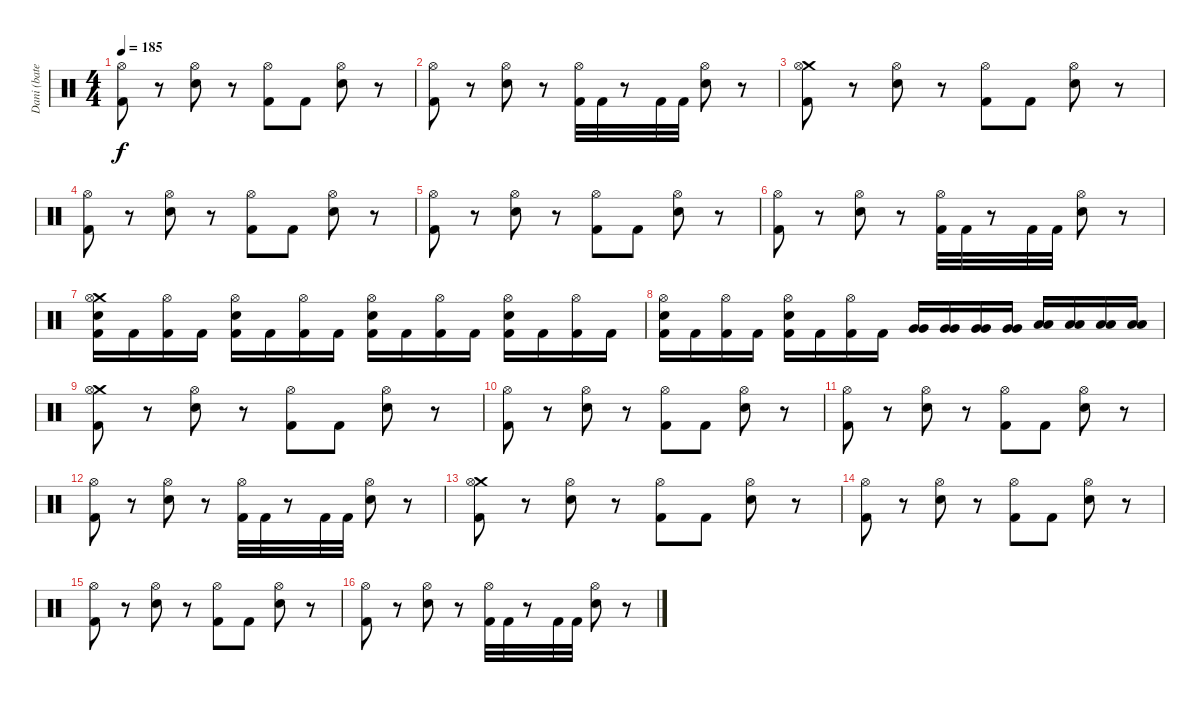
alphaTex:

\track ("Dani (batería)" "Dani (bate") {instrument percussion}
\staff {score}
\articulation defaults
\ts (4 4)
\tempo 185
\clef neutral
\ks c
("Hi-Hat (open)" "Kick (hit) 2").8{dy f} r.8 ("Hi-Hat (open)" "Snare (hit) 2").8 r.8 ("Hi-Hat (open)" "Kick (hit) 2").8 "Kick (hit) 2".8 ("Hi-Hat (open)" "Snare (hit) 2").8 r.8 |
("Hi-Hat (open)" "Kick (hit) 2").8 r.8 ("Hi-Hat (open)" "Snare (hit) 2").8 r.8 ("Hi-Hat (open)" "Kick (hit) 2").32 "Kick (hit) 2".32 r.8 "Kick (hit) 2".32 "Kick (hit) 2".32 ("Hi-Hat (open)" "Snare (hit) 2").8 r.8 |
("Crash medium (hit)" "Hi-Hat (open)" "Kick (hit) 2").8 r.8 ("Hi-Hat (open)" "Snare (hit) 2").8 r.8 ("Hi-Hat (open)" "Kick (hit) 2").8 "Kick (hit) 2".8 ("Hi-Hat (open)" "Snare (hit) 2").8 r.8 |
("Hi-Hat (open)" "Kick (hit) 2").8 r.8 ("Hi-Hat (open)" "Snare (hit) 2").8 r.8 ("Hi-Hat (open)" "Kick (hit) 2").8 "Kick (hit) 2".8 ("Hi-Hat (open)" "Snare (hit) 2").8 r.8 |
("Hi-Hat (open)" "Kick (hit) 2").8 r.8 ("Hi-Hat (open)" "Snare (hit) 2").8 r.8 ("Hi-Hat (open)" "Kick (hit) 2").8 "Kick (hit) 2".8 ("Hi-Hat (open)" "Snare (hit) 2").8 r.8 |
("Hi-Hat (open)" "Kick (hit) 2").8 r.8 ("Hi-Hat (open)" "Snare (hit) 2").8 r.8 ("Hi-Hat (open)" "Kick (hit) 2").32 "Kick (hit) 2".32 r.8 "Kick (hit) 2".32 "Kick (hit) 2".32 ("Hi-Hat (open)" "Snare (hit) 2").8 r.8 |
("Crash medium (hit)" "Hi-Hat (open)" "Snare (hit) 2" "Kick (hit) 2").16 "Kick (hit) 2".16 ("Hi-Hat (open)" "Kick (hit) 2").16 "Kick (hit) 2".16 ("Hi-Hat (open)" "Snare (hit) 2" "Kick (hit) 2").16 "Kick (hit) 2".16 ("Hi-Hat (open)" "Kick (hit) 2").16 "Kick (hit) 2".16 ("Hi-Hat (open)" "Snare (hit) 2" "Kick (hit) 2").16 "Kick (hit) 2".16 ("Hi-Hat (open)" "Kick (hit) 2").16 "Kick (hit) 2".16 ("Hi-Hat (open)" "Snare (hit) 2" "Kick (hit) 2").16 "Kick (hit) 2".16 ("Hi-Hat (open)" "Kick (hit) 2").16 "Kick (hit) 2".16 |
("Hi-Hat (open)" "Snare (hit) 2" "Kick (hit) 2").16 "Kick (hit) 2".16 ("Hi-Hat (open)" "Kick (hit) 2").16 "Kick (hit) 2".16 ("Hi-Hat (open)" "Snare (hit) 2" "Kick (hit) 2").16 "Kick (hit) 2".16 ("Hi-Hat (open)" "Kick (hit) 2").16 "Kick (hit) 2".16 ("Very Low Tom (hit)" "Very Low Tom (hit)").16 ("Very Low Tom (hit)" "Very Low Tom (hit)").16 ("Very Low Tom (hit)" "Very Low Tom (hit)").16 ("Very Low Tom (hit)" "Very Low Tom (hit)").16 ("Low Floor Tom (hit)" "Low Floor Tom (hit)").16 ("Low Floor Tom (hit)" "Low Floor Tom (hit)").16 ("Low Floor Tom (hit)" "Low Floor Tom (hit)").16 ("Low Floor Tom (hit)" "Low Floor Tom (hit)").16 |
("Crash medium (hit)" "Hi-Hat (open)" "Kick (hit) 2").8 r.8 ("Hi-Hat (open)" "Snare (hit) 2").8 r.8 ("Hi-Hat (open)" "Kick (hit) 2").8 "Kick (hit) 2".8 ("Hi-Hat (open)" "Snare (hit) 2").8 r.8 |
("Hi-Hat (open)" "Kick (hit) 2").8 r.8 ("Hi-Hat (open)" "Snare (hit) 2").8 r.8 ("Hi-Hat (open)" "Kick (hit) 2").8 "Kick (hit) 2".8 ("Hi-Hat (open)" "Snare (hit) 2").8 r.8 |
("Hi-Hat (open)" "Kick (hit) 2").8 r.8 ("Hi-Hat (open)" "Snare (hit) 2").8 r.8 ("Hi-Hat (open)" "Kick (hit) 2").8 "Kick (hit) 2".8 ("Hi-Hat (open)" "Snare (hit) 2").8 r.8 |
("Hi-Hat (open)" "Kick (hit) 2").8 r.8 ("Hi-Hat (open)" "Snare (hit) 2").8 r.8 ("Hi-Hat (open)" "Kick (hit) 2").32 "Kick (hit) 2".32 r.8 "Kick (hit) 2".32 "Kick (hit) 2".32 ("Hi-Hat (open)" "Snare (hit) 2").8 r.8 |
("Crash medium (hit)" "Hi-Hat (open)" "Kick (hit) 2").8 r.8 ("Hi-Hat (open)" "Snare (hit) 2").8 r.8 ("Hi-Hat (open)" "Kick (hit) 2").8 "Kick (hit) 2".8 ("Hi-Hat (open)" "Snare (hit) 2").8 r.8 |
("Hi-Hat (open)" "Kick (hit) 2").8 r.8 ("Hi-Hat (open)" "Snare (hit) 2").8 r.8 ("Hi-Hat (open)" "Kick (hit) 2").8 "Kick (hit) 2".8 ("Hi-Hat (open)" "Snare (hit) 2").8 r.8 |
("Hi-Hat (open)" "Kick (hit) 2").8 r.8 ("Hi-Hat (open)" "Snare (hit) 2").8 r.8 ("Hi-Hat (open)" "Kick (hit) 2").8 "Kick (hit) 2".8 ("Hi-Hat (open)" "Snare (hit) 2").8 r.8 |
("Hi-Hat (open)" "Kick (hit) 2").8 r.8 ("Hi-Hat (open)" "Snare (hit) 2").8 r.8 ("Hi-Hat (open)" "Kick (hit) 2").32 "Kick (hit) 2".32 r.8 "Kick (hit) 2".32 "Kick (hit) 2".32 ("Hi-Hat (open)" "Snare (hit) 2").8 r.8
